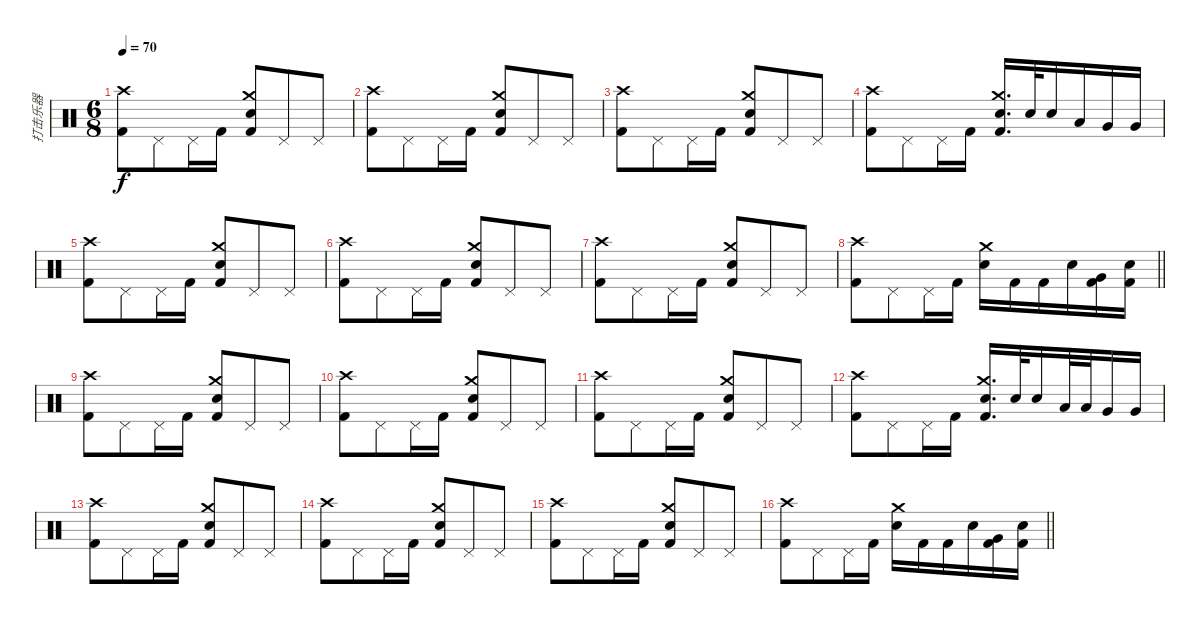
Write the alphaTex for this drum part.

\track ("打击乐器" "打击乐器") {instrument percussion}
\staff {score}
\articulation defaults
\ts (6 8)
\tempo 70
\clef neutral
\ks c
("Crash high (hit)" "Kick (hit) 2").8{dy f} "Pedal Hi-Hat (hit)".8 "Pedal Hi-Hat (hit)".16 "Kick (hit) 2".16 ("Crash medium (hit)" "Snare (hit) 2" "Kick (hit) 2").8 "Pedal Hi-Hat (hit)".8 "Pedal Hi-Hat (hit)".8 |
("Crash high (hit)" "Kick (hit) 2").8 "Pedal Hi-Hat (hit)".8 "Pedal Hi-Hat (hit)".16 "Kick (hit) 2".16 ("Crash medium (hit)" "Snare (hit) 2" "Kick (hit) 2").8 "Pedal Hi-Hat (hit)".8 "Pedal Hi-Hat (hit)".8 |
("Crash high (hit)" "Kick (hit) 2").8 "Pedal Hi-Hat (hit)".8 "Pedal Hi-Hat (hit)".16 "Kick (hit) 2".16 ("Crash medium (hit)" "Snare (hit) 2" "Kick (hit) 2").8 "Pedal Hi-Hat (hit)".8 "Pedal Hi-Hat (hit)".8 |
("Crash high (hit)" "Kick (hit) 2").8 "Pedal Hi-Hat (hit)".8 "Pedal Hi-Hat (hit)".16 "Kick (hit) 2".16 ("Crash medium (hit)" "Snare (hit) 2" "Kick (hit) 2").16{d} "Snare (hit) 2".32 "Snare (hit) 2".16 "Low Tom (hit)".16 "Very Low Tom (hit)".16 "Very Low Tom (hit)".16 |
("Crash high (hit)" "Kick (hit) 2").8 "Pedal Hi-Hat (hit)".8 "Pedal Hi-Hat (hit)".16 "Kick (hit) 2".16 ("Crash medium (hit)" "Snare (hit) 2" "Kick (hit) 2").8 "Pedal Hi-Hat (hit)".8 "Pedal Hi-Hat (hit)".8 |
("Crash high (hit)" "Kick (hit) 2").8 "Pedal Hi-Hat (hit)".8 "Pedal Hi-Hat (hit)".16 "Kick (hit) 2".16 ("Crash medium (hit)" "Snare (hit) 2" "Kick (hit) 2").8 "Pedal Hi-Hat (hit)".8 "Pedal Hi-Hat (hit)".8 |
("Crash high (hit)" "Kick (hit) 2").8 "Pedal Hi-Hat (hit)".8 "Pedal Hi-Hat (hit)".16 "Kick (hit) 2".16 ("Crash medium (hit)" "Snare (hit) 2" "Kick (hit) 2").8 "Pedal Hi-Hat (hit)".8 "Pedal Hi-Hat (hit)".8 |
\barLineRight lightlight
("Crash high (hit)" "Kick (hit) 2").8 "Pedal Hi-Hat (hit)".8 "Pedal Hi-Hat (hit)".16 "Kick (hit) 2".16 ("Crash medium (hit)" "Snare (hit) 2").16 "Kick (hit) 2".16 "Kick (hit) 2".16 "Snare (hit) 2".16 ("Very Low Tom (hit)" "Kick (hit) 2").16 ("Snare (hit) 2" "Kick (hit) 2").16 |
("Crash high (hit)" "Kick (hit) 2").8 "Pedal Hi-Hat (hit)".8 "Pedal Hi-Hat (hit)".16 "Kick (hit) 2".16 ("Crash medium (hit)" "Snare (hit) 2" "Kick (hit) 2").8 "Pedal Hi-Hat (hit)".8 "Pedal Hi-Hat (hit)".8 |
("Crash high (hit)" "Kick (hit) 2").8 "Pedal Hi-Hat (hit)".8 "Pedal Hi-Hat (hit)".16 "Kick (hit) 2".16 ("Crash medium (hit)" "Snare (hit) 2" "Kick (hit) 2").8 "Pedal Hi-Hat (hit)".8 "Pedal Hi-Hat (hit)".8 |
("Crash high (hit)" "Kick (hit) 2").8 "Pedal Hi-Hat (hit)".8 "Pedal Hi-Hat (hit)".16 "Kick (hit) 2".16 ("Crash medium (hit)" "Snare (hit) 2" "Kick (hit) 2").8 "Pedal Hi-Hat (hit)".8 "Pedal Hi-Hat (hit)".8 |
("Crash high (hit)" "Kick (hit) 2").8 "Pedal Hi-Hat (hit)".8 "Pedal Hi-Hat (hit)".16 "Kick (hit) 2".16 ("Crash medium (hit)" "Snare (hit) 2" "Kick (hit) 2").16{d} "Snare (hit) 2".32 "Snare (hit) 2".16 "Low Tom (hit)".32 "Low Tom (hit)".32 "Very Low Tom (hit)".16 "Very Low Tom (hit)".16 |
("Crash high (hit)" "Kick (hit) 2").8 "Pedal Hi-Hat (hit)".8 "Pedal Hi-Hat (hit)".16 "Kick (hit) 2".16 ("Crash medium (hit)" "Snare (hit) 2" "Kick (hit) 2").8 "Pedal Hi-Hat (hit)".8 "Pedal Hi-Hat (hit)".8 |
("Crash high (hit)" "Kick (hit) 2").8 "Pedal Hi-Hat (hit)".8 "Pedal Hi-Hat (hit)".16 "Kick (hit) 2".16 ("Crash medium (hit)" "Snare (hit) 2" "Kick (hit) 2").8 "Pedal Hi-Hat (hit)".8 "Pedal Hi-Hat (hit)".8 |
("Crash high (hit)" "Kick (hit) 2").8 "Pedal Hi-Hat (hit)".8 "Pedal Hi-Hat (hit)".16 "Kick (hit) 2".16 ("Crash medium (hit)" "Snare (hit) 2" "Kick (hit) 2").8 "Pedal Hi-Hat (hit)".8 "Pedal Hi-Hat (hit)".8 |
\barLineRight lightlight
("Crash high (hit)" "Kick (hit) 2").8 "Pedal Hi-Hat (hit)".8 "Pedal Hi-Hat (hit)".16 "Kick (hit) 2".16 ("Crash medium (hit)" "Snare (hit) 2").16 "Kick (hit) 2".16 "Kick (hit) 2".16 "Snare (hit) 2".16 ("Very Low Tom (hit)" "Kick (hit) 2").16 ("Snare (hit) 2" "Kick (hit) 2").16
